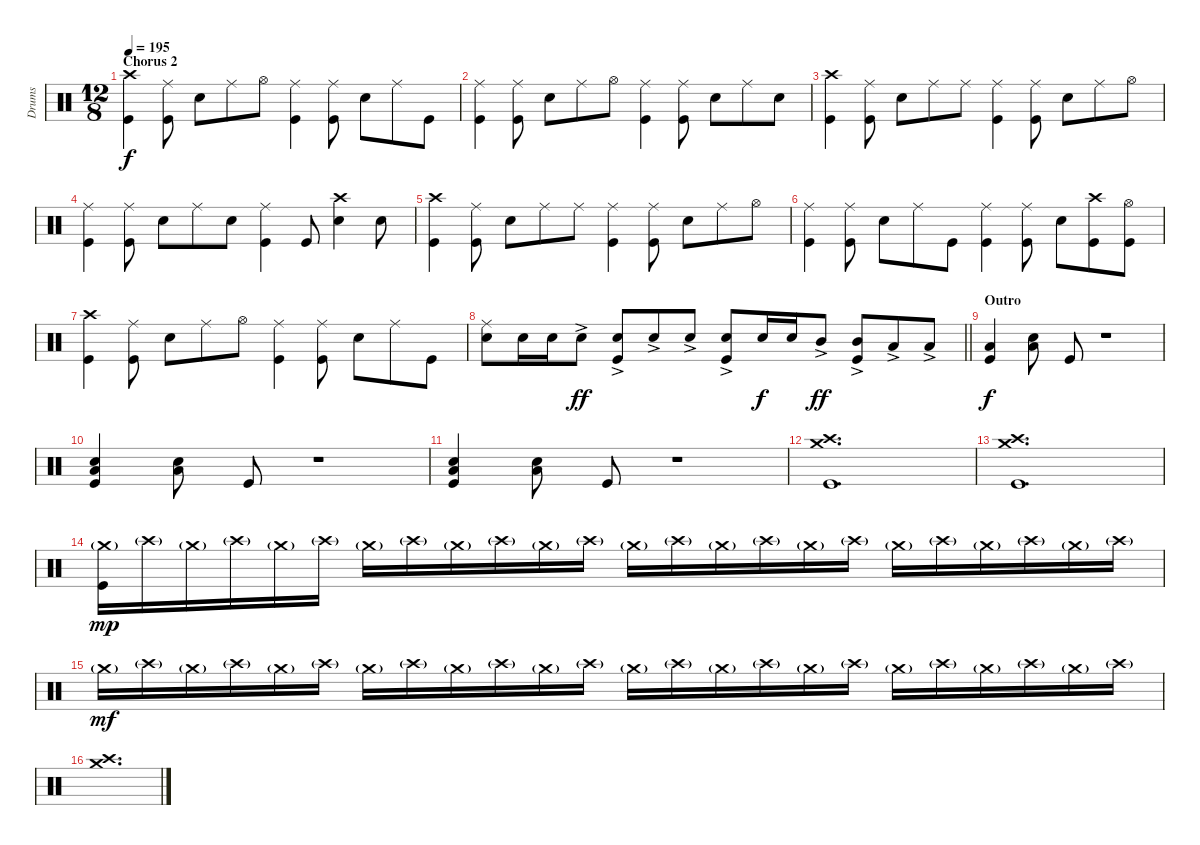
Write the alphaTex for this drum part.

\track ("Drums" "Drums") {instrument percussion}
\staff {score}
\articulation defaults
\ts (12 8)
\section ("" "Chorus 2")
\tempo 195
\clef neutral
\ks c
("Crash high (hit)" "Kick (hit)").4{dy f} ("Ride (middle)" "Kick (hit)").8 "Snare (hit) 2".8 "Ride (middle)".8 "Hi-Hat (open)".8 ("Ride (middle)" "Kick (hit)").4 ("Ride (middle)" "Kick (hit)").8 "Snare (hit) 2".8 "Ride (middle)".8 "Kick (hit)".8 |
("Ride (middle)" "Kick (hit)").4 ("Ride (middle)" "Kick (hit)").8 "Snare (hit) 2".8 "Ride (middle)".8 "Hi-Hat (open)".8 ("Ride (middle)" "Kick (hit)").4 ("Ride (middle)" "Kick (hit)").8 "Snare (hit) 2".8 "Ride (middle)".8 "Snare (hit) 2".8 |
("Crash high (hit)" "Kick (hit)").4 ("Ride (middle)" "Kick (hit)").8 "Snare (hit) 2".8 "Ride (middle)".8 "Ride (middle)".8 ("Ride (middle)" "Kick (hit)").4 ("Ride (middle)" "Kick (hit)").8 "Snare (hit) 2".8 "Ride (middle)".8 "Hi-Hat (open)".8 |
("Ride (middle)" "Kick (hit)").4 ("Ride (middle)" "Kick (hit)").8 "Snare (hit) 2".8 "Ride (middle)".8 "Snare (hit) 2".8 ("Ride (middle)" "Kick (hit)").4 "Kick (hit)".8 ("Crash high (hit)" "Snare (hit) 2").4 "Snare (hit) 2".8 |
("Crash high (hit)" "Kick (hit)").4 ("Ride (middle)" "Kick (hit)").8 "Snare (hit) 2".8 "Ride (middle)".8 "Ride (middle)".8 ("Ride (middle)" "Kick (hit)").4 ("Ride (middle)" "Kick (hit)").8 "Snare (hit) 2".8 "Ride (middle)".8 "Hi-Hat (open)".8 |
("Ride (middle)" "Kick (hit)").4 ("Ride (middle)" "Kick (hit)").8 "Snare (hit) 2".8 "Ride (middle)".8 "Kick (hit)".8 ("Ride (middle)" "Kick (hit)").4 ("Ride (middle)" "Kick (hit)").8 "Snare (hit) 2".8 ("Crash high (hit)" "Kick (hit)").8 ("Hi-Hat (open)" "Kick (hit)").8 |
("Crash high (hit)" "Kick (hit)").4 ("Ride (middle)" "Kick (hit)").8 "Snare (hit) 2".8 "Ride (middle)".8 "Hi-Hat (open)".8 ("Ride (middle)" "Kick (hit)").4 ("Ride (middle)" "Kick (hit)").8 "Snare (hit) 2".8 "Ride (middle)".8 "Kick (hit)".8 |
\barLineRight lightlight
("Ride (middle)" "Snare (hit) 2").8 "Snare (hit) 2".16 "Snare (hit) 2".16 "Snare (hit) 2"{ac}.8{dy ff} ("Snare (hit) 2"{ac} "Kick (hit)").8 "Snare (hit) 2"{ac}.8 "Snare (hit) 2"{ac}.8 ("Snare (hit) 2"{ac} "Kick (hit)").8 "Snare (hit) 2".16{dy f} "Snare (hit) 2".16 "Mid Tom (hit)"{ac}.8{dy ff} ("Mid Tom (hit)"{ac} "Kick (hit)").8 "Low Tom (hit)"{ac}.8 "Low Tom (hit)"{ac}.8 |
\section ("" "Outro")
("Low Tom (hit)" "Kick (hit)").4{dy f} ("Low Tom (hit)" "Snare (hit) 2").8 "Kick (hit)".8 r.1 |
("Low Tom (hit)" "Snare (hit) 2" "Kick (hit)").4 ("Low Tom (hit)" "Snare (hit) 2").8 "Kick (hit)".8 r.1 |
("Low Tom (hit)" "Snare (hit) 2" "Kick (hit)").4 ("Low Tom (hit)" "Snare (hit) 2").8 "Kick (hit)".8 r.1 |
("Crash medium (hit)" "Crash high (hit)" "Kick (hit)").1{d} |
("Crash medium (hit)" "Crash high (hit)" "Kick (hit)").1{d} |
("Crash medium (hit)"{g} "Kick (hit)").16{dy mp} "Crash high (hit)"{g}.16 "Crash medium (hit)"{g}.16 "Crash high (hit)"{g}.16 "Crash medium (hit)"{g}.16 "Crash high (hit)"{g}.16 "Crash medium (hit)"{g}.16 "Crash high (hit)"{g}.16 "Crash medium (hit)"{g}.16 "Crash high (hit)"{g}.16 "Crash medium (hit)"{g}.16 "Crash high (hit)"{g}.16 "Crash medium (hit)"{g}.16 "Crash high (hit)"{g}.16 "Crash medium (hit)"{g}.16 "Crash high (hit)"{g}.16 "Crash medium (hit)"{g}.16 "Crash high (hit)"{g}.16 "Crash medium (hit)"{g}.16 "Crash high (hit)"{g}.16 "Crash medium (hit)"{g}.16 "Crash high (hit)"{g}.16 "Crash medium (hit)"{g}.16 "Crash high (hit)"{g}.16 |
"Crash medium (hit)"{g}.16{dy mf} "Crash high (hit)"{g}.16 "Crash medium (hit)"{g}.16 "Crash high (hit)"{g}.16 "Crash medium (hit)"{g}.16 "Crash high (hit)"{g}.16 "Crash medium (hit)"{g}.16 "Crash high (hit)"{g}.16 "Crash medium (hit)"{g}.16 "Crash high (hit)"{g}.16 "Crash medium (hit)"{g}.16 "Crash high (hit)"{g}.16 "Crash medium (hit)"{g}.16 "Crash high (hit)"{g}.16 "Crash medium (hit)"{g}.16 "Crash high (hit)"{g}.16 "Crash medium (hit)"{g}.16 "Crash high (hit)"{g}.16 "Crash medium (hit)"{g}.16 "Crash high (hit)"{g}.16 "Crash medium (hit)"{g}.16 "Crash high (hit)"{g}.16 "Crash medium (hit)"{g}.16 "Crash high (hit)"{g}.16 |
("Crash medium (hit)" "Crash high (hit)").1{d}
